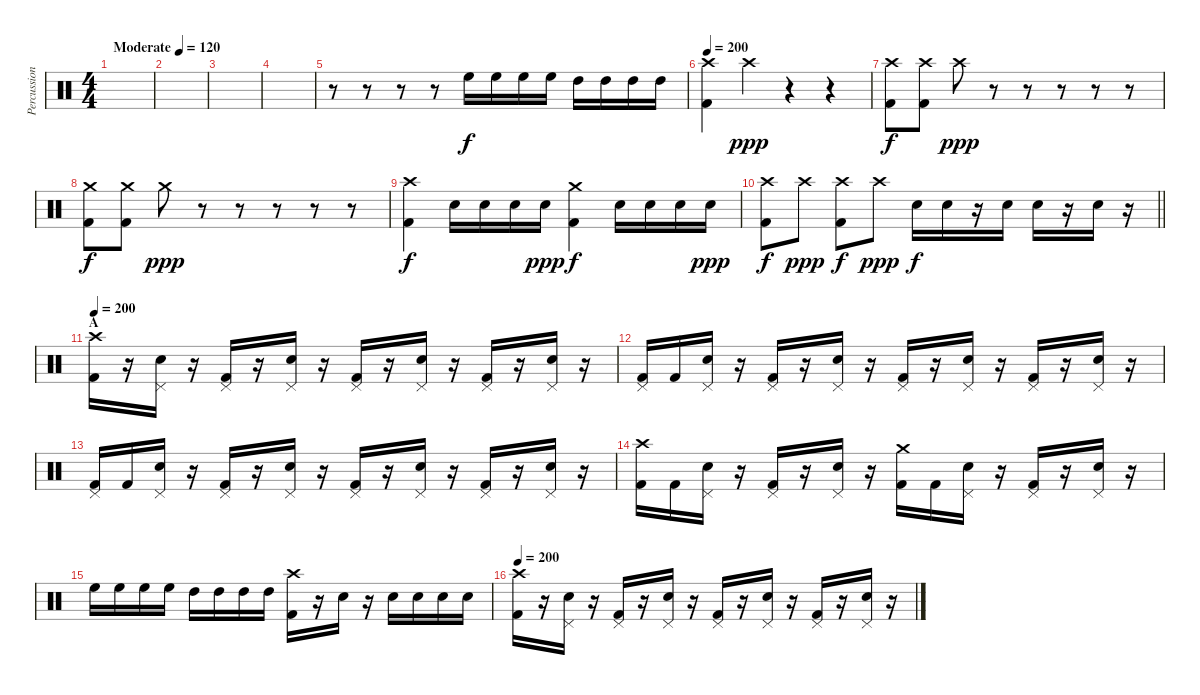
\track ("Percussion" "Percussion") {instrument percussion}
\staff {score}
\articulation defaults
\ts (4 4)
\tempo (120 "Moderate")
\tempo 200
\tempo (120 "Moderate")
\clef neutral
\ks c
|
|
|
|
r.8 r.8 r.8 r.8 "High Floor Tom (hit)".16 "High Floor Tom (hit)".16 "High Floor Tom (hit)".16 "High Floor Tom (hit)".16 "High Tom (hit)".16 "High Tom (hit)".16 "High Tom (hit)".16 "High Tom (hit)".16 |
\tempo 200
("Crash high (hit)" "Kick (hit) 2").4 "Crash high (hit)".4{dy ppp} r.4 r.4 |
("Crash high (hit)" "Kick (hit) 2").8{dy f} ("Crash high (hit)" "Kick (hit) 2").8 "Crash high (hit)".8{dy ppp} r.8 r.8 r.8 r.8 r.8 |
("Crash medium (hit)" "Kick (hit) 2").8{dy f} ("Crash medium (hit)" "Kick (hit) 2").8 "Crash medium (hit)".8{dy ppp} r.8 r.8 r.8 r.8 r.8 |
("Crash high (hit)" "Kick (hit) 2").4{dy f} "Snare (hit) 2".16 "Snare (hit) 2".16 "Snare (hit) 2".16 "Snare (hit) 2".16{dy ppp} ("Crash medium (hit)" "Kick (hit) 2").4{dy f} "Snare (hit) 2".16 "Snare (hit) 2".16 "Snare (hit) 2".16 "Snare (hit) 2".16{dy ppp} |
\barLineRight lightlight
("Crash high (hit)" "Kick (hit) 2").8{dy f} "Crash high (hit)".8{dy ppp} ("Crash high (hit)" "Kick (hit) 2").8{dy f} "Crash high (hit)".8{dy ppp} "Snare (hit) 2".16{dy f} "Snare (hit) 2".16 r.16 "Snare (hit) 2".16 "Snare (hit) 2".16 r.16 "Snare (hit) 2".16 r.16 |
\section ("" "A")
\tempo 200
("Crash high (hit)" "Kick (hit) 2").16 r.16 ("Pedal Hi-Hat (hit)" "Snare (hit) 2").16 r.16 ("Pedal Hi-Hat (hit)" "Kick (hit) 2").16 r.16 ("Pedal Hi-Hat (hit)" "Snare (hit) 2").16 r.16 ("Pedal Hi-Hat (hit)" "Kick (hit) 2").16 r.16 ("Pedal Hi-Hat (hit)" "Snare (hit) 2").16 r.16 ("Pedal Hi-Hat (hit)" "Kick (hit) 2").16 r.16 ("Pedal Hi-Hat (hit)" "Snare (hit) 2").16 r.16 |
("Pedal Hi-Hat (hit)" "Kick (hit) 2").16 "Kick (hit) 2".16 ("Pedal Hi-Hat (hit)" "Snare (hit) 2").16 r.16 ("Pedal Hi-Hat (hit)" "Kick (hit) 2").16 r.16 ("Pedal Hi-Hat (hit)" "Snare (hit) 2").16 r.16 ("Pedal Hi-Hat (hit)" "Kick (hit) 2").16 r.16 ("Pedal Hi-Hat (hit)" "Snare (hit) 2").16 r.16 ("Pedal Hi-Hat (hit)" "Kick (hit) 2").16 r.16 ("Pedal Hi-Hat (hit)" "Snare (hit) 2").16 r.16 |
("Pedal Hi-Hat (hit)" "Kick (hit) 2").16 "Kick (hit) 2".16 ("Pedal Hi-Hat (hit)" "Snare (hit) 2").16 r.16 ("Pedal Hi-Hat (hit)" "Kick (hit) 2").16 r.16 ("Pedal Hi-Hat (hit)" "Snare (hit) 2").16 r.16 ("Pedal Hi-Hat (hit)" "Kick (hit) 2").16 r.16 ("Pedal Hi-Hat (hit)" "Snare (hit) 2").16 r.16 ("Pedal Hi-Hat (hit)" "Kick (hit) 2").16 r.16 ("Pedal Hi-Hat (hit)" "Snare (hit) 2").16 r.16 |
("Crash high (hit)" "Kick (hit) 2").16 "Kick (hit) 2".16 ("Pedal Hi-Hat (hit)" "Snare (hit) 2").16 r.16 ("Pedal Hi-Hat (hit)" "Kick (hit) 2").16 r.16 ("Pedal Hi-Hat (hit)" "Snare (hit) 2").16 r.16 ("Crash medium (hit)" "Kick (hit) 2").16 "Kick (hit) 2".16 ("Pedal Hi-Hat (hit)" "Snare (hit) 2").16 r.16 ("Pedal Hi-Hat (hit)" "Kick (hit) 2").16 r.16 ("Pedal Hi-Hat (hit)" "Snare (hit) 2").16 r.16 |
"High Floor Tom (hit)".16 "High Floor Tom (hit)".16 "High Floor Tom (hit)".16 "High Floor Tom (hit)".16 "High Tom (hit)".16 "High Tom (hit)".16 "High Tom (hit)".16 "High Tom (hit)".16 ("Crash high (hit)" "Kick (hit) 2").16 r.16 "Snare (hit) 2".16 r.16 "Snare (hit) 2".16 "Snare (hit) 2".16 "Snare (hit) 2".16 "Snare (hit) 2".16 |
\tempo 200
("Crash high (hit)" "Kick (hit) 2").16 r.16 ("Pedal Hi-Hat (hit)" "Snare (hit) 2").16 r.16 ("Pedal Hi-Hat (hit)" "Kick (hit) 2").16 r.16 ("Pedal Hi-Hat (hit)" "Snare (hit) 2").16 r.16 ("Pedal Hi-Hat (hit)" "Kick (hit) 2").16 r.16 ("Pedal Hi-Hat (hit)" "Snare (hit) 2").16 r.16 ("Pedal Hi-Hat (hit)" "Kick (hit) 2").16 r.16 ("Pedal Hi-Hat (hit)" "Snare (hit) 2").16 r.16
